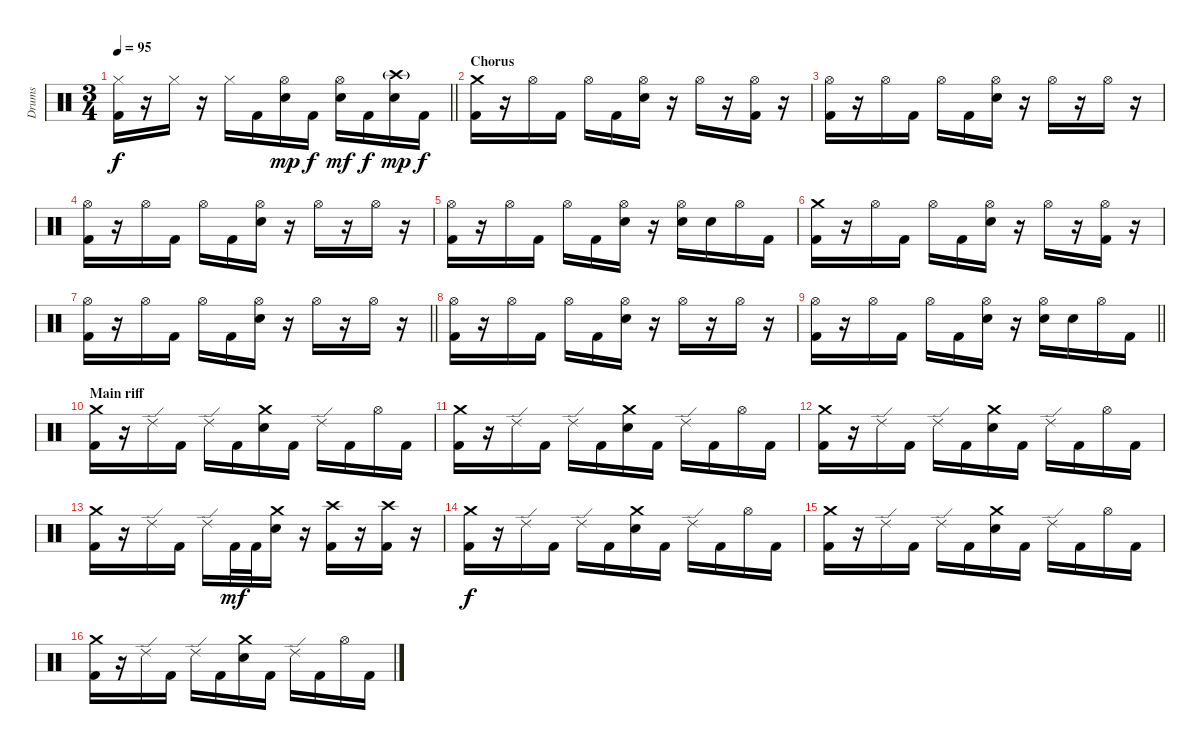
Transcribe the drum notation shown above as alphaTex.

\track ("Drums" "Drums") {instrument percussion}
\staff {score}
\articulation defaults
\ts (3 4)
\tempo 95
\clef neutral
\barLineRight lightlight
\ks c
("Hi-Hat (closed)" "Kick (hit) 2").16{dy f} r.16 "Hi-Hat (closed)".16 r.16 "Hi-Hat (closed)".16 "Kick (hit) 2".16 ("Hi-Hat (open)" "Electric Snare (hit)").16{dy mp} "Kick (hit) 2".16{dy f} ("Hi-Hat (open)" "Electric Snare (hit)").16{dy mf} "Kick (hit) 2".16{dy f} ("Crash high (hit)"{g} "Electric Snare (hit)").16{dy mp} "Kick (hit) 2".16{dy f} |
\section ("" "Chorus")
("Crash medium (hit)" "Kick (hit) 2").16 r.16 "Hi-Hat (open)".16 "Kick (hit) 2".16 "Hi-Hat (open)".16 "Kick (hit) 2".16 ("Hi-Hat (open)" "Electric Snare (hit)").16 r.16 "Hi-Hat (open)".16 r.16 ("Hi-Hat (open)" "Kick (hit) 2").16 r.16 |
("Hi-Hat (open)" "Kick (hit) 2").16 r.16 "Hi-Hat (open)".16 "Kick (hit) 2".16 "Hi-Hat (open)".16 "Kick (hit) 2".16 ("Hi-Hat (open)" "Electric Snare (hit)").16 r.16 "Hi-Hat (open)".16 r.16 "Hi-Hat (open)".16 r.16 |
("Hi-Hat (open)" "Kick (hit) 2").16 r.16 "Hi-Hat (open)".16 "Kick (hit) 2".16 "Hi-Hat (open)".16 "Kick (hit) 2".16 ("Hi-Hat (open)" "Electric Snare (hit)").16 r.16 "Hi-Hat (open)".16 r.16 "Hi-Hat (open)".16 r.16 |
("Hi-Hat (open)" "Kick (hit) 2").16 r.16 "Hi-Hat (open)".16 "Kick (hit) 2".16 "Hi-Hat (open)".16 "Kick (hit) 2".16 ("Hi-Hat (open)" "Electric Snare (hit)").16 r.16 ("Hi-Hat (open)" "Electric Snare (hit)").16 "Electric Snare (hit)".16 "Hi-Hat (open)".16 "Kick (hit) 2".16 |
("Crash medium (hit)" "Kick (hit) 2").16 r.16 "Hi-Hat (open)".16 "Kick (hit) 2".16 "Hi-Hat (open)".16 "Kick (hit) 2".16 ("Hi-Hat (open)" "Electric Snare (hit)").16 r.16 "Hi-Hat (open)".16 r.16 ("Hi-Hat (open)" "Kick (hit) 2").16 r.16 |
\barLineRight lightlight
("Hi-Hat (open)" "Kick (hit) 2").16 r.16 "Hi-Hat (open)".16 "Kick (hit) 2".16 "Hi-Hat (open)".16 "Kick (hit) 2".16 ("Hi-Hat (open)" "Electric Snare (hit)").16 r.16 "Hi-Hat (open)".16 r.16 "Hi-Hat (open)".16 r.16 |
("Hi-Hat (open)" "Kick (hit) 2").16 r.16 "Hi-Hat (open)".16 "Kick (hit) 2".16 "Hi-Hat (open)".16 "Kick (hit) 2".16 ("Hi-Hat (open)" "Electric Snare (hit)").16 r.16 "Hi-Hat (open)".16 r.16 "Hi-Hat (open)".16 r.16 |
\barLineRight lightlight
("Hi-Hat (open)" "Kick (hit) 2").16 r.16 "Hi-Hat (open)".16 "Kick (hit) 2".16 "Hi-Hat (open)".16 "Kick (hit) 2".16 ("Hi-Hat (open)" "Electric Snare (hit)").16 r.16 ("Hi-Hat (open)" "Electric Snare (hit)").16 "Electric Snare (hit)".16 "Hi-Hat (open)".16 "Kick (hit) 2".16 |
\section ("" "Main riff")
("Crash medium (hit)" "Kick (hit) 2").16 r.16 "Ride (edge) 2".16 "Kick (hit) 2".16 "Ride (edge) 2".16 "Kick (hit) 2".16 ("Crash medium (hit)" "Electric Snare (hit)").16 "Kick (hit) 2".16 "Ride (edge) 2".16 "Kick (hit) 2".16 "Hi-Hat (open)".16 "Kick (hit) 2".16 |
("Crash medium (hit)" "Kick (hit) 2").16 r.16 "Ride (edge) 2".16 "Kick (hit) 2".16 "Ride (edge) 2".16 "Kick (hit) 2".16 ("Crash medium (hit)" "Electric Snare (hit)").16 "Kick (hit) 2".16 "Ride (edge) 2".16 "Kick (hit) 2".16 "Hi-Hat (open)".16 "Kick (hit) 2".16 |
("Crash medium (hit)" "Kick (hit) 2").16 r.16 "Ride (edge) 2".16 "Kick (hit) 2".16 "Ride (edge) 2".16 "Kick (hit) 2".16 ("Crash medium (hit)" "Electric Snare (hit)").16 "Kick (hit) 2".16 "Ride (edge) 2".16 "Kick (hit) 2".16 "Hi-Hat (open)".16 "Kick (hit) 2".16 |
("Crash medium (hit)" "Kick (hit) 2").16 r.16 "Ride (edge) 2".16 "Kick (hit) 2".16 "Ride (edge) 2".16 "Kick (hit) 2".32{dy mf} "Kick (hit) 2".32 ("Crash medium (hit)" "Electric Snare (hit)").16 r.16 ("Crash high (hit)" "Kick (hit) 2").16 r.16 ("Crash high (hit)" "Kick (hit) 2").16 r.16 |
("Crash medium (hit)" "Kick (hit) 2").16{dy f} r.16 "Ride (edge) 2".16 "Kick (hit) 2".16 "Ride (edge) 2".16 "Kick (hit) 2".16 ("Crash medium (hit)" "Electric Snare (hit)").16 "Kick (hit) 2".16 "Ride (edge) 2".16 "Kick (hit) 2".16 "Hi-Hat (open)".16 "Kick (hit) 2".16 |
("Crash medium (hit)" "Kick (hit) 2").16 r.16 "Ride (edge) 2".16 "Kick (hit) 2".16 "Ride (edge) 2".16 "Kick (hit) 2".16 ("Crash medium (hit)" "Electric Snare (hit)").16 "Kick (hit) 2".16 "Ride (edge) 2".16 "Kick (hit) 2".16 "Hi-Hat (open)".16 "Kick (hit) 2".16 |
("Crash medium (hit)" "Kick (hit) 2").16 r.16 "Ride (edge) 2".16 "Kick (hit) 2".16 "Ride (edge) 2".16 "Kick (hit) 2".16 ("Crash medium (hit)" "Electric Snare (hit)").16 "Kick (hit) 2".16 "Ride (edge) 2".16 "Kick (hit) 2".16 "Hi-Hat (open)".16 "Kick (hit) 2".16
